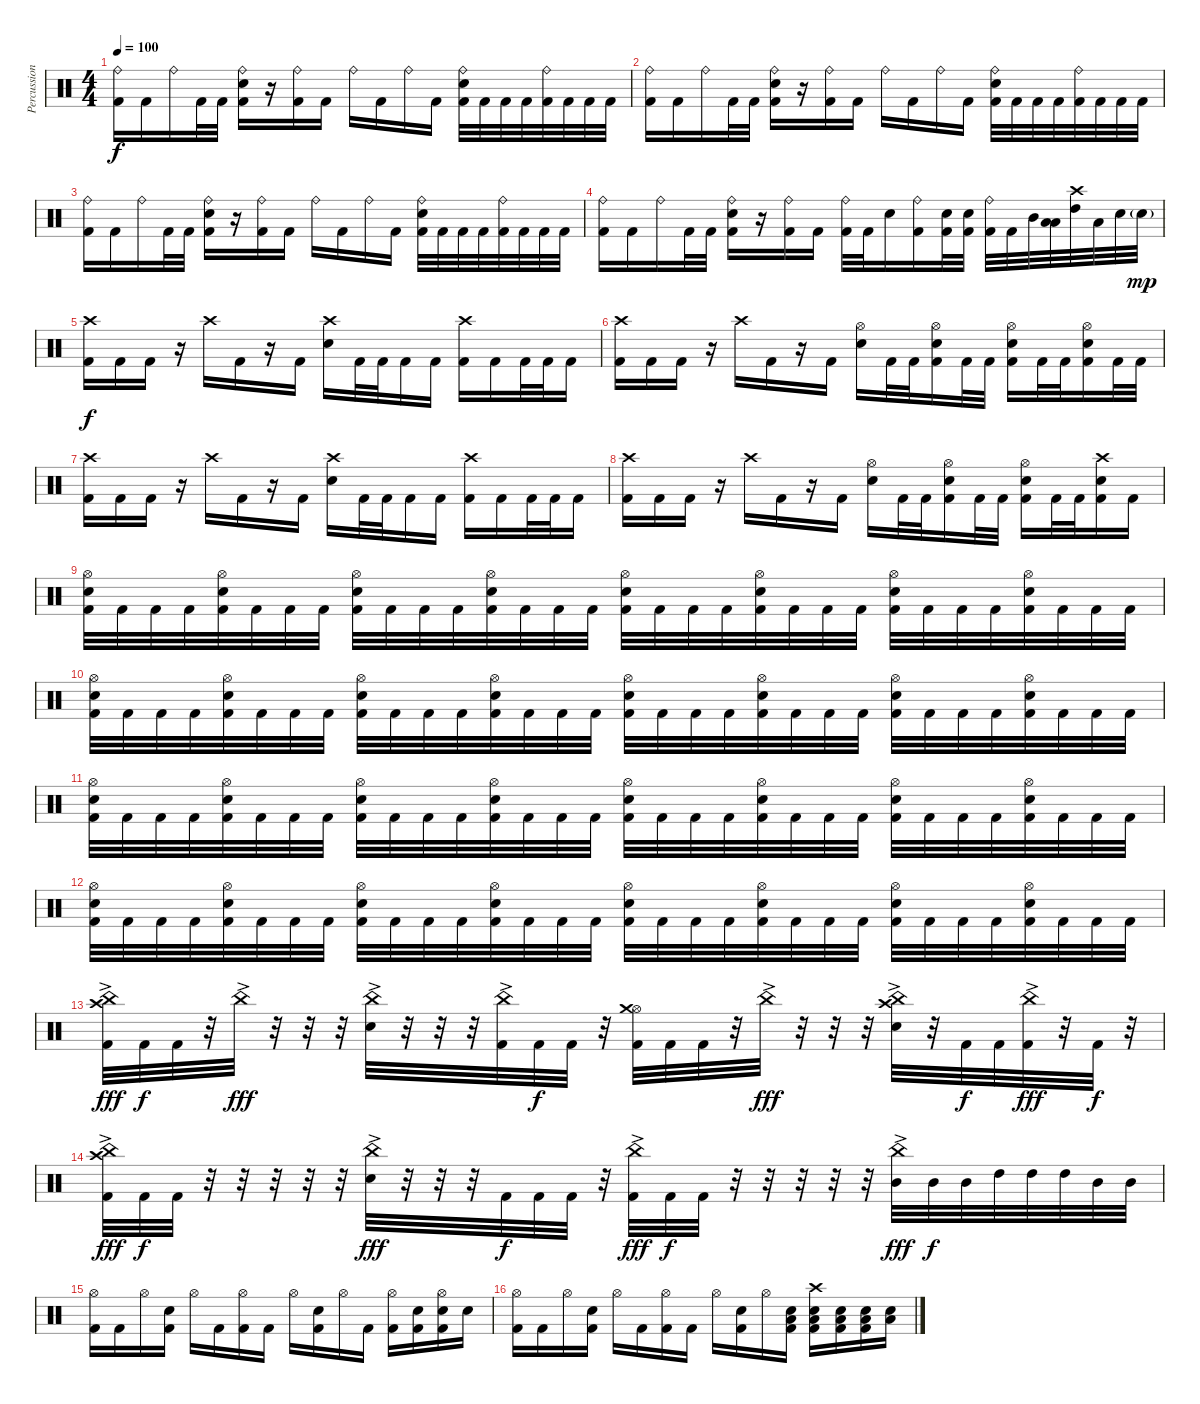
\track ("Percussion" "Percussion") {instrument percussion}
\staff {score}
\articulation defaults
\ts (4 4)
\tempo 100
\clef neutral
\ks c
("Ride (bell)" "Kick (hit) 2").16{dy f} "Kick (hit) 2".16 "Ride (bell)".16 "Kick (hit) 2".32 "Kick (hit) 2".32 ("Ride (bell)" "Electric Snare (hit)" "Kick (hit) 2").16 r.16 ("Ride (bell)" "Kick (hit) 2").16 "Kick (hit) 2".16 "Ride (bell)".16 "Kick (hit) 2".16 "Ride (bell)".16 "Kick (hit) 2".16 ("Ride (bell)" "Electric Snare (hit)" "Kick (hit) 2").32 "Kick (hit) 2".32 "Kick (hit) 2".32 "Kick (hit) 2".32 ("Ride (bell)" "Kick (hit) 2").32 "Kick (hit) 2".32 "Kick (hit) 2".32 "Kick (hit) 2".32 |
("Ride (bell)" "Kick (hit) 2").16 "Kick (hit) 2".16 "Ride (bell)".16 "Kick (hit) 2".32 "Kick (hit) 2".32 ("Ride (bell)" "Electric Snare (hit)" "Kick (hit) 2").16 r.16 ("Ride (bell)" "Kick (hit) 2").16 "Kick (hit) 2".16 "Ride (bell)".16 "Kick (hit) 2".16 "Ride (bell)".16 "Kick (hit) 2".16 ("Ride (bell)" "Electric Snare (hit)" "Kick (hit) 2").32 "Kick (hit) 2".32 "Kick (hit) 2".32 "Kick (hit) 2".32 ("Ride (bell)" "Kick (hit) 2").32 "Kick (hit) 2".32 "Kick (hit) 2".32 "Kick (hit) 2".32 |
("Ride (bell)" "Kick (hit) 2").16 "Kick (hit) 2".16 "Ride (bell)".16 "Kick (hit) 2".32 "Kick (hit) 2".32 ("Ride (bell)" "Electric Snare (hit)" "Kick (hit) 2").16 r.16 ("Ride (bell)" "Kick (hit) 2").16 "Kick (hit) 2".16 "Ride (bell)".16 "Kick (hit) 2".16 "Ride (bell)".16 "Kick (hit) 2".16 ("Ride (bell)" "Electric Snare (hit)" "Kick (hit) 2").32 "Kick (hit) 2".32 "Kick (hit) 2".32 "Kick (hit) 2".32 ("Ride (bell)" "Kick (hit) 2").32 "Kick (hit) 2".32 "Kick (hit) 2".32 "Kick (hit) 2".32 |
("Ride (bell)" "Kick (hit) 2").16 "Kick (hit) 2".16 "Ride (bell)".16 "Kick (hit) 2".32 "Kick (hit) 2".32 ("Ride (bell)" "Electric Snare (hit)" "Kick (hit) 2").16 r.16 ("Ride (bell)" "Kick (hit) 2").16 "Kick (hit) 2".16 ("Ride (bell)" "Kick (hit) 2").32 "Kick (hit) 2".32 "Electric Snare (hit)".16 ("Ride (bell)" "Kick (hit) 2").16 ("Electric Snare (hit)" "Kick (hit) 2").32 ("Electric Snare (hit)" "Kick (hit) 2").32 ("Ride (bell)" "Kick (hit) 2").32 "Kick (hit) 2".32 "Mid Tom (hit)".32 ("Low Tom (hit)" "Low Tom (hit)").32 ("Crash high (hit)" "High Tom (hit)").32 "Low Tom (hit)".32 "Electric Snare (hit)".32 "Electric Snare (hit)"{g}.32{dy mp} |
("Crash high (hit)" "Kick (hit) 2").16{dy f} "Kick (hit) 2".16 "Kick (hit) 2".16 r.16 "Crash high (hit)".16 "Kick (hit) 2".16 r.16 "Kick (hit) 2".16 ("Crash high (hit)" "Electric Snare (hit)").16 "Kick (hit) 2".32 "Kick (hit) 2".32 "Kick (hit) 2".16 "Kick (hit) 2".16 ("Crash high (hit)" "Kick (hit) 2").16 "Kick (hit) 2".16 "Kick (hit) 2".32 "Kick (hit) 2".32 "Kick (hit) 2".16 |
("Crash high (hit)" "Kick (hit) 2").16 "Kick (hit) 2".16 "Kick (hit) 2".16 r.16 "Crash high (hit)".16 "Kick (hit) 2".16 r.16 "Kick (hit) 2".16 ("Hi-Hat (open)" "Electric Snare (hit)").16 "Kick (hit) 2".32 "Kick (hit) 2".32 ("Hi-Hat (open)" "Electric Snare (hit)" "Kick (hit) 2").16 "Kick (hit) 2".32 "Kick (hit) 2".32 ("Hi-Hat (open)" "Electric Snare (hit)" "Kick (hit) 2").16 "Kick (hit) 2".32 "Kick (hit) 2".32 ("Hi-Hat (open)" "Electric Snare (hit)" "Kick (hit) 2").16 "Kick (hit) 2".32 "Kick (hit) 2".32 |
("Crash high (hit)" "Kick (hit) 2").16 "Kick (hit) 2".16 "Kick (hit) 2".16 r.16 "Crash high (hit)".16 "Kick (hit) 2".16 r.16 "Kick (hit) 2".16 ("Crash high (hit)" "Electric Snare (hit)").16 "Kick (hit) 2".32 "Kick (hit) 2".32 "Kick (hit) 2".16 "Kick (hit) 2".16 ("Crash high (hit)" "Kick (hit) 2").16 "Kick (hit) 2".16 "Kick (hit) 2".32 "Kick (hit) 2".32 "Kick (hit) 2".16 |
("Crash high (hit)" "Kick (hit) 2").16 "Kick (hit) 2".16 "Kick (hit) 2".16 r.16 "Crash high (hit)".16 "Kick (hit) 2".16 r.16 "Kick (hit) 2".16 ("Hi-Hat (open)" "Electric Snare (hit)").16 "Kick (hit) 2".32 "Kick (hit) 2".32 ("Hi-Hat (open)" "Electric Snare (hit)" "Kick (hit) 2").16 "Kick (hit) 2".32 "Kick (hit) 2".32 ("Hi-Hat (open)" "Electric Snare (hit)" "Kick (hit) 2").16 "Kick (hit) 2".32 "Kick (hit) 2".32 ("Crash high (hit)" "Electric Snare (hit)" "Kick (hit) 2").16 "Kick (hit) 2".16 |
("Hi-Hat (open)" "Electric Snare (hit)" "Kick (hit) 2").32 "Kick (hit) 2".32 "Kick (hit) 2".32 "Kick (hit) 2".32 ("Hi-Hat (open)" "Electric Snare (hit)" "Kick (hit) 2").32 "Kick (hit) 2".32 "Kick (hit) 2".32 "Kick (hit) 2".32 ("Hi-Hat (open)" "Electric Snare (hit)" "Kick (hit) 2").32 "Kick (hit) 2".32 "Kick (hit) 2".32 "Kick (hit) 2".32 ("Hi-Hat (open)" "Electric Snare (hit)" "Kick (hit) 2").32 "Kick (hit) 2".32 "Kick (hit) 2".32 "Kick (hit) 2".32 ("Hi-Hat (open)" "Electric Snare (hit)" "Kick (hit) 2").32 "Kick (hit) 2".32 "Kick (hit) 2".32 "Kick (hit) 2".32 ("Hi-Hat (open)" "Electric Snare (hit)" "Kick (hit) 2").32 "Kick (hit) 2".32 "Kick (hit) 2".32 "Kick (hit) 2".32 ("Hi-Hat (open)" "Electric Snare (hit)" "Kick (hit) 2").32 "Kick (hit) 2".32 "Kick (hit) 2".32 "Kick (hit) 2".32 ("Hi-Hat (open)" "Electric Snare (hit)" "Kick (hit) 2").32 "Kick (hit) 2".32 "Kick (hit) 2".32 "Kick (hit) 2".32 |
("Hi-Hat (open)" "Electric Snare (hit)" "Kick (hit) 2").32 "Kick (hit) 2".32 "Kick (hit) 2".32 "Kick (hit) 2".32 ("Hi-Hat (open)" "Electric Snare (hit)" "Kick (hit) 2").32 "Kick (hit) 2".32 "Kick (hit) 2".32 "Kick (hit) 2".32 ("Hi-Hat (open)" "Electric Snare (hit)" "Kick (hit) 2").32 "Kick (hit) 2".32 "Kick (hit) 2".32 "Kick (hit) 2".32 ("Hi-Hat (open)" "Electric Snare (hit)" "Kick (hit) 2").32 "Kick (hit) 2".32 "Kick (hit) 2".32 "Kick (hit) 2".32 ("Hi-Hat (open)" "Electric Snare (hit)" "Kick (hit) 2").32 "Kick (hit) 2".32 "Kick (hit) 2".32 "Kick (hit) 2".32 ("Hi-Hat (open)" "Electric Snare (hit)" "Kick (hit) 2").32 "Kick (hit) 2".32 "Kick (hit) 2".32 "Kick (hit) 2".32 ("Hi-Hat (open)" "Electric Snare (hit)" "Kick (hit) 2").32 "Kick (hit) 2".32 "Kick (hit) 2".32 "Kick (hit) 2".32 ("Hi-Hat (open)" "Electric Snare (hit)" "Kick (hit) 2").32 "Kick (hit) 2".32 "Kick (hit) 2".32 "Kick (hit) 2".32 |
("Hi-Hat (open)" "Electric Snare (hit)" "Kick (hit) 2").32 "Kick (hit) 2".32 "Kick (hit) 2".32 "Kick (hit) 2".32 ("Hi-Hat (open)" "Electric Snare (hit)" "Kick (hit) 2").32 "Kick (hit) 2".32 "Kick (hit) 2".32 "Kick (hit) 2".32 ("Hi-Hat (open)" "Electric Snare (hit)" "Kick (hit) 2").32 "Kick (hit) 2".32 "Kick (hit) 2".32 "Kick (hit) 2".32 ("Hi-Hat (open)" "Electric Snare (hit)" "Kick (hit) 2").32 "Kick (hit) 2".32 "Kick (hit) 2".32 "Kick (hit) 2".32 ("Hi-Hat (open)" "Electric Snare (hit)" "Kick (hit) 2").32 "Kick (hit) 2".32 "Kick (hit) 2".32 "Kick (hit) 2".32 ("Hi-Hat (open)" "Electric Snare (hit)" "Kick (hit) 2").32 "Kick (hit) 2".32 "Kick (hit) 2".32 "Kick (hit) 2".32 ("Hi-Hat (open)" "Electric Snare (hit)" "Kick (hit) 2").32 "Kick (hit) 2".32 "Kick (hit) 2".32 "Kick (hit) 2".32 ("Hi-Hat (open)" "Electric Snare (hit)" "Kick (hit) 2").32 "Kick (hit) 2".32 "Kick (hit) 2".32 "Kick (hit) 2".32 |
("Hi-Hat (open)" "Electric Snare (hit)" "Kick (hit) 2").32 "Kick (hit) 2".32 "Kick (hit) 2".32 "Kick (hit) 2".32 ("Hi-Hat (open)" "Electric Snare (hit)" "Kick (hit) 2").32 "Kick (hit) 2".32 "Kick (hit) 2".32 "Kick (hit) 2".32 ("Hi-Hat (open)" "Electric Snare (hit)" "Kick (hit) 2").32 "Kick (hit) 2".32 "Kick (hit) 2".32 "Kick (hit) 2".32 ("Hi-Hat (open)" "Electric Snare (hit)" "Kick (hit) 2").32 "Kick (hit) 2".32 "Kick (hit) 2".32 "Kick (hit) 2".32 ("Hi-Hat (open)" "Electric Snare (hit)" "Kick (hit) 2").32 "Kick (hit) 2".32 "Kick (hit) 2".32 "Kick (hit) 2".32 ("Hi-Hat (open)" "Electric Snare (hit)" "Kick (hit) 2").32 "Kick (hit) 2".32 "Kick (hit) 2".32 "Kick (hit) 2".32 ("Hi-Hat (open)" "Electric Snare (hit)" "Kick (hit) 2").32 "Kick (hit) 2".32 "Kick (hit) 2".32 "Kick (hit) 2".32 ("Hi-Hat (open)" "Electric Snare (hit)" "Kick (hit) 2").32 "Kick (hit) 2".32 "Kick (hit) 2".32 "Kick (hit) 2".32 |
("China (hit)"{ac} "Crash high (hit)" "Kick (hit) 2").32{dy fff} "Kick (hit) 2".32{dy f} "Kick (hit) 2".32 r.32 "China (hit)"{ac}.32{dy fff} r.32 r.32 r.32 ("China (hit)"{ac} "Electric Snare (hit)").32 r.32 r.32 r.32 ("China (hit)"{ac} "Kick (hit) 2").32 "Kick (hit) 2".32{dy f} "Kick (hit) 2".32 r.32 ("Hi-Hat (open)" "Crash medium (hit)" "Kick (hit) 2").32 "Kick (hit) 2".32 "Kick (hit) 2".32 r.32 "China (hit)"{ac}.32{dy fff} r.32 r.32 r.32 ("China (hit)"{ac} "Crash high (hit)" "Electric Snare (hit)").32 r.32 "Kick (hit) 2".32{dy f} "Kick (hit) 2".32 ("China (hit)"{ac} "Kick (hit) 2").32{dy fff} r.32 "Kick (hit) 2".32{dy f} r.32 |
("China (hit)"{ac} "Crash high (hit)" "Kick (hit) 2").32{dy fff} "Kick (hit) 2".32{dy f} "Kick (hit) 2".32 r.32 r.32 r.32 r.32 r.32 ("China (hit)"{ac} "Electric Snare (hit)").32{dy fff} r.32 r.32 r.32 "Kick (hit) 2".32{dy f} "Kick (hit) 2".32 "Kick (hit) 2".32 r.32 ("China (hit)"{ac} "Kick (hit) 2").32{dy fff} "Kick (hit) 2".32{dy f} "Kick (hit) 2".32 r.32 r.32 r.32 r.32 r.32 ("China (hit)"{ac} "Mid Tom (hit)").32{dy fff} "Mid Tom (hit)".32{dy f} "Mid Tom (hit)".32 "High Tom (hit)".32 "High Tom (hit)".32 "High Tom (hit)".32 "Mid Tom (hit)".32 "Mid Tom (hit)".32 |
("Hi-Hat (open)" "Kick (hit) 2").16 "Kick (hit) 2".16 "Hi-Hat (open)".16 ("Electric Snare (hit)" "Kick (hit) 2").16 "Hi-Hat (open)".16 "Kick (hit) 2".16 ("Hi-Hat (open)" "Kick (hit) 2").16 "Kick (hit) 2".16 "Hi-Hat (open)".16 ("Electric Snare (hit)" "Kick (hit) 2").16 "Hi-Hat (open)".16 "Kick (hit) 2".16 ("Hi-Hat (open)" "Kick (hit) 2").16 ("Electric Snare (hit)" "Kick (hit) 2").16 ("Hi-Hat (open)" "Electric Snare (hit)" "Kick (hit) 2").16 "Electric Snare (hit)".16 |
("Hi-Hat (open)" "Kick (hit) 2").16 "Kick (hit) 2".16 "Hi-Hat (open)".16 ("Electric Snare (hit)" "Kick (hit) 2").16 "Hi-Hat (open)".16 "Kick (hit) 2".16 ("Hi-Hat (open)" "Kick (hit) 2").16 "Kick (hit) 2".16 "Hi-Hat (open)".16 ("Electric Snare (hit)" "Kick (hit) 2").16 "Hi-Hat (open)".16 ("Low Tom (hit)" "Electric Snare (hit)" "Kick (hit) 2").16 ("Crash high (hit)" "Low Tom (hit)" "Electric Snare (hit)" "Kick (hit) 2").16 ("Low Tom (hit)" "Electric Snare (hit)" "Kick (hit) 2").16 ("Low Tom (hit)" "Electric Snare (hit)" "Kick (hit) 2").16 ("Low Tom (hit)" "Electric Snare (hit)").16
